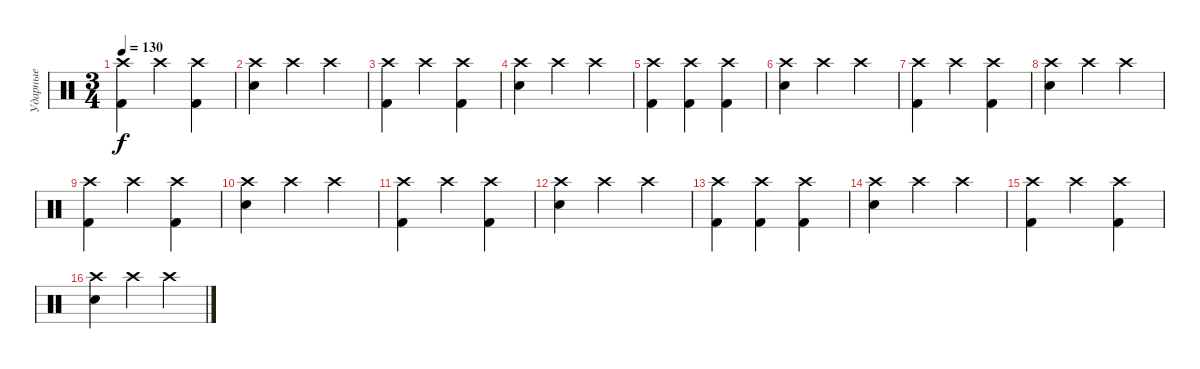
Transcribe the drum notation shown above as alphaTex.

\track ("Ударные" "Ударные") {instrument percussion}
\staff {score}
\articulation defaults
\ts (3 4)
\tempo 130
\clef neutral
\ks c
("Crash high (hit)" "Kick (hit) 2").4{dy f} "Crash high (hit)".4 ("Crash high (hit)" "Kick (hit) 2").4 |
("Crash high (hit)" "Electric Snare (hit)").4 "Crash high (hit)".4 "Crash high (hit)".4 |
("Crash high (hit)" "Kick (hit) 2").4 "Crash high (hit)".4 ("Crash high (hit)" "Kick (hit) 2").4 |
("Crash high (hit)" "Electric Snare (hit)").4 "Crash high (hit)".4 "Crash high (hit)".4 |
("Crash high (hit)" "Kick (hit) 2").4 ("Crash high (hit)" "Kick (hit) 2").4 ("Crash high (hit)" "Kick (hit) 2").4 |
("Crash high (hit)" "Electric Snare (hit)").4 "Crash high (hit)".4 "Crash high (hit)".4 |
("Crash high (hit)" "Kick (hit) 2").4 "Crash high (hit)".4 ("Crash high (hit)" "Kick (hit) 2").4 |
("Crash high (hit)" "Electric Snare (hit)").4 "Crash high (hit)".4 "Crash high (hit)".4 |
("Crash high (hit)" "Kick (hit) 2").4 "Crash high (hit)".4 ("Crash high (hit)" "Kick (hit) 2").4 |
("Crash high (hit)" "Electric Snare (hit)").4 "Crash high (hit)".4 "Crash high (hit)".4 |
("Crash high (hit)" "Kick (hit) 2").4 "Crash high (hit)".4 ("Crash high (hit)" "Kick (hit) 2").4 |
("Crash high (hit)" "Electric Snare (hit)").4 "Crash high (hit)".4 "Crash high (hit)".4 |
("Crash high (hit)" "Kick (hit) 2").4 ("Crash high (hit)" "Kick (hit) 2").4 ("Crash high (hit)" "Kick (hit) 2").4 |
("Crash high (hit)" "Electric Snare (hit)").4 "Crash high (hit)".4 "Crash high (hit)".4 |
("Crash high (hit)" "Kick (hit) 2").4 "Crash high (hit)".4 ("Crash high (hit)" "Kick (hit) 2").4 |
("Crash high (hit)" "Electric Snare (hit)").4 "Crash high (hit)".4 "Crash high (hit)".4
